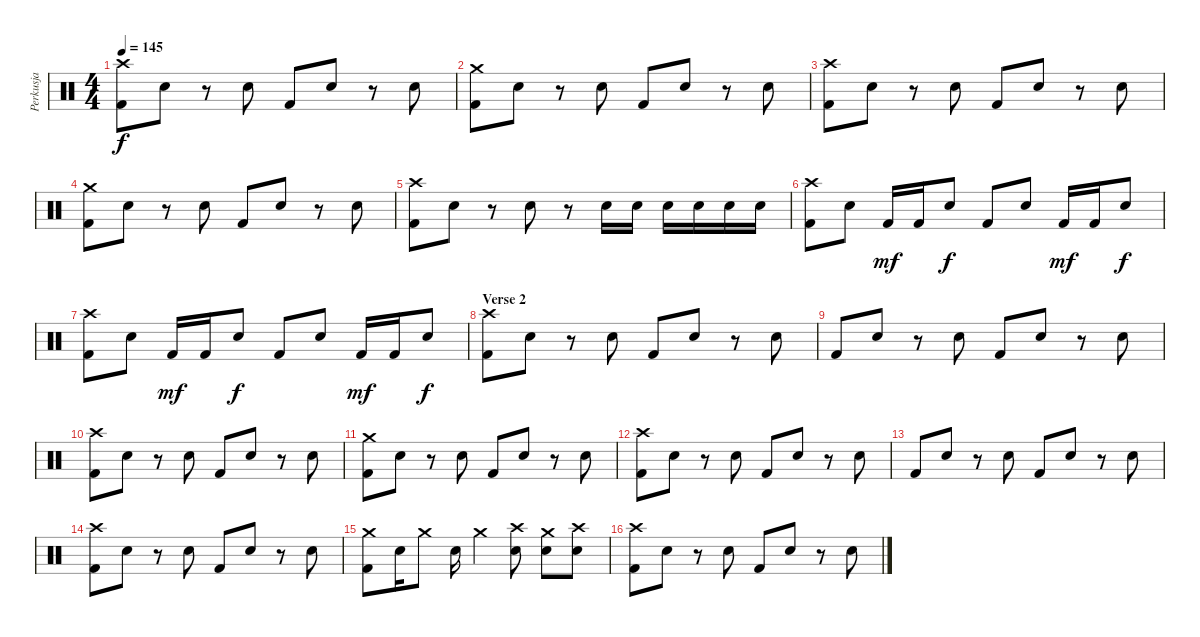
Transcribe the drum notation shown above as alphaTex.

\track ("Perkusja" "Perkusja") {instrument percussion}
\staff {score}
\articulation defaults
\ts (4 4)
\tempo 145
\clef neutral
\ks c
("Crash high (hit)" "Kick (hit) 2").8{dy f} "Electric Snare (hit)".8 r.8 "Electric Snare (hit)".8 "Kick (hit) 2".8 "Electric Snare (hit)".8 r.8 "Electric Snare (hit)".8 |
("Crash medium (hit)" "Kick (hit) 2").8 "Electric Snare (hit)".8 r.8 "Electric Snare (hit)".8 "Kick (hit) 2".8 "Electric Snare (hit)".8 r.8 "Electric Snare (hit)".8 |
("Crash high (hit)" "Kick (hit) 2").8 "Electric Snare (hit)".8 r.8 "Electric Snare (hit)".8 "Kick (hit) 2".8 "Electric Snare (hit)".8 r.8 "Electric Snare (hit)".8 |
("Crash medium (hit)" "Kick (hit) 2").8 "Electric Snare (hit)".8 r.8 "Electric Snare (hit)".8 "Kick (hit) 2".8 "Electric Snare (hit)".8 r.8 "Electric Snare (hit)".8 |
("Crash high (hit)" "Kick (hit) 2").8 "Electric Snare (hit)".8 r.8 "Electric Snare (hit)".8 r.8 "Electric Snare (hit)".16 "Electric Snare (hit)".16 "Electric Snare (hit)".16 "Electric Snare (hit)".16 "Electric Snare (hit)".16 "Electric Snare (hit)".16 |
("Crash high (hit)" "Kick (hit) 2").8 "Electric Snare (hit)".8 "Kick (hit) 2".16{dy mf} "Kick (hit) 2".16 "Electric Snare (hit)".8{dy f} "Kick (hit) 2".8 "Electric Snare (hit)".8 "Kick (hit) 2".16{dy mf} "Kick (hit) 2".16 "Electric Snare (hit)".8{dy f} |
("Crash high (hit)" "Kick (hit) 2").8 "Electric Snare (hit)".8 "Kick (hit) 2".16{dy mf} "Kick (hit) 2".16 "Electric Snare (hit)".8{dy f} "Kick (hit) 2".8 "Electric Snare (hit)".8 "Kick (hit) 2".16{dy mf} "Kick (hit) 2".16 "Electric Snare (hit)".8{dy f} |
\section ("" "Verse 2")
("Crash high (hit)" "Kick (hit) 2").8 "Electric Snare (hit)".8 r.8 "Electric Snare (hit)".8 "Kick (hit) 2".8 "Electric Snare (hit)".8 r.8 "Electric Snare (hit)".8 |
"Kick (hit) 2".8 "Electric Snare (hit)".8 r.8 "Electric Snare (hit)".8 "Kick (hit) 2".8 "Electric Snare (hit)".8 r.8 "Electric Snare (hit)".8 |
("Crash high (hit)" "Kick (hit) 2").8 "Electric Snare (hit)".8 r.8 "Electric Snare (hit)".8 "Kick (hit) 2".8 "Electric Snare (hit)".8 r.8 "Electric Snare (hit)".8 |
("Crash medium (hit)" "Kick (hit) 2").8 "Electric Snare (hit)".8 r.8 "Electric Snare (hit)".8 "Kick (hit) 2".8 "Electric Snare (hit)".8 r.8 "Electric Snare (hit)".8 |
("Crash high (hit)" "Kick (hit) 2").8 "Electric Snare (hit)".8 r.8 "Electric Snare (hit)".8 "Kick (hit) 2".8 "Electric Snare (hit)".8 r.8 "Electric Snare (hit)".8 |
"Kick (hit) 2".8 "Electric Snare (hit)".8 r.8 "Electric Snare (hit)".8 "Kick (hit) 2".8 "Electric Snare (hit)".8 r.8 "Electric Snare (hit)".8 |
("Crash high (hit)" "Kick (hit) 2").8 "Electric Snare (hit)".8 r.8 "Electric Snare (hit)".8 "Kick (hit) 2".8 "Electric Snare (hit)".8 r.8 "Electric Snare (hit)".8 |
("Crash medium (hit)" "Kick (hit) 2").8 "Electric Snare (hit)".16 "Crash medium (hit)".8 "Electric Snare (hit)".16 "Crash medium (hit)".4 ("Crash high (hit)" "Electric Snare (hit)").8 ("Crash medium (hit)" "Electric Snare (hit)").8 ("Crash high (hit)" "Electric Snare (hit)").8 |
("Crash high (hit)" "Kick (hit) 2").8 "Electric Snare (hit)".8 r.8 "Electric Snare (hit)".8 "Kick (hit) 2".8 "Electric Snare (hit)".8 r.8 "Electric Snare (hit)".8
